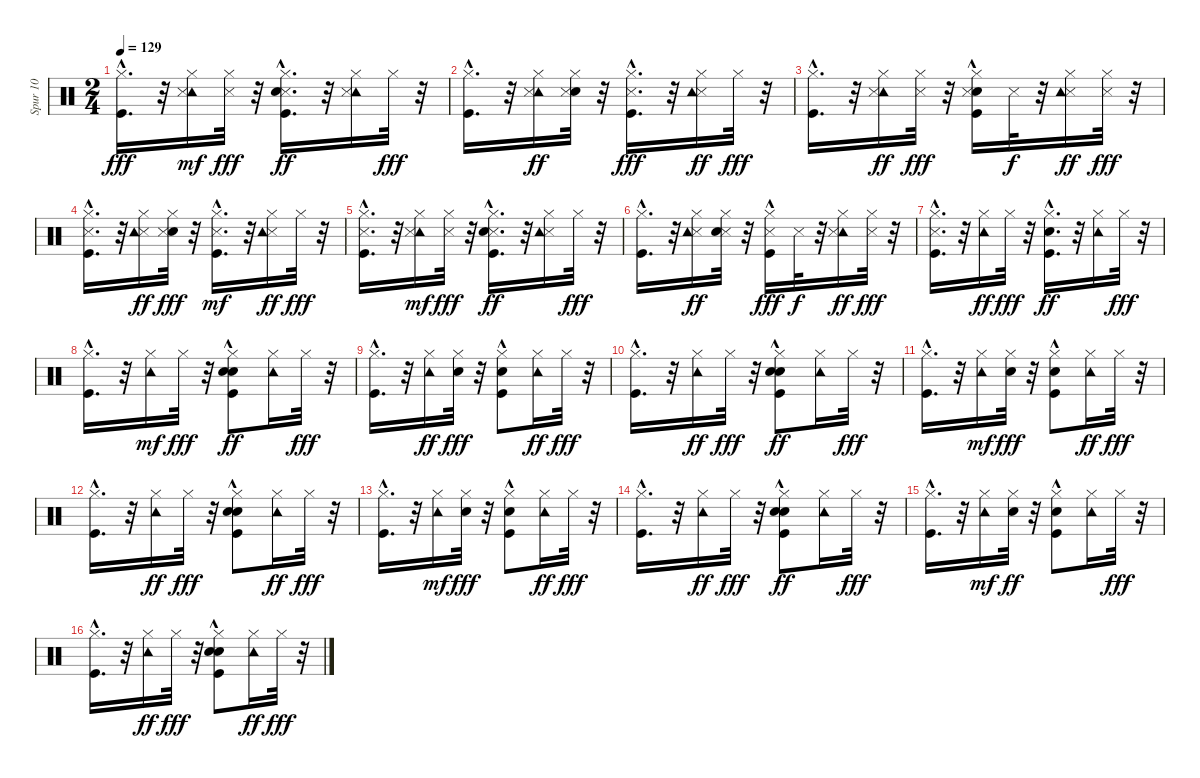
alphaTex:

\track ("Spur 10" "Spur 10") {instrument percussion}
\staff {score}
\articulation defaults
\ts (2 4)
\tempo 129
\clef neutral
\ks c
("Kick (hit)"{hac} "Hi-Hat (closed)").16{d dy fff} r.32 ("Hi-Hat (closed)" "Tambourine (hit)" "Snare (side stick) 3").16{dy mf} ("Hi-Hat (closed)" "Snare (side stick) 3").32{dy fff} r.32 ("Hi-Hat (closed)" "Snare (side stick) 3" "Kick (hit)"{hac} "Snare (hit) 2").16{d dy ff} r.32 ("Hi-Hat (closed)" "Tambourine (hit)" "Snare (side stick) 3").16 "Hi-Hat (closed)".32{dy fff} r.32 |
("Kick (hit)"{hac} "Hi-Hat (closed)").16{d} r.32 ("Tambourine (hit)" "Snare (side stick) 3" "Hi-Hat (closed)").16{dy ff} ("Hi-Hat (closed)" "Snare (hit) 2" "Snare (side stick) 3").32 r.32 ("Kick (hit)"{hac} "Hi-Hat (closed)" "Snare (side stick) 3").16{d dy fff} r.32 ("Snare (side stick) 3" "Hi-Hat (closed)" "Tambourine (hit)").16{dy ff} "Hi-Hat (closed)".32{dy fff} r.32 |
("Hi-Hat (closed)" "Kick (hit)"{hac}).16{d} r.32 ("Hi-Hat (closed)" "Tambourine (hit)" "Snare (side stick) 3").16{dy ff} ("Snare (side stick) 3" "Hi-Hat (closed)").32{dy fff} r.32 ("Snare (hit) 2" "Snare (side stick) 3" "Hi-Hat (closed)" "Kick (hit)"{hac}).16 "Snare (side stick) 3".32{dy f} r.32 ("Hi-Hat (closed)" "Snare (side stick) 3" "Tambourine (hit)").16{dy ff} ("Snare (side stick) 3" "Hi-Hat (closed)").32{dy fff} r.32 |
("Hi-Hat (closed)" "Kick (hit)"{hac} "Snare (side stick) 3").16{d} r.32 ("Snare (side stick) 3" "Tambourine (hit)" "Hi-Hat (closed)").16{dy ff} ("Snare (hit) 2" "Snare (side stick) 3" "Hi-Hat (closed)").32{dy fff} r.32 ("Kick (hit)"{hac} "Hi-Hat (closed)" "Snare (side stick) 3").16{d dy mf} r.32 ("Snare (side stick) 3" "Tambourine (hit)" "Hi-Hat (closed)").16{dy ff} "Hi-Hat (closed)".32{dy fff} r.32 |
("Snare (side stick) 3" "Hi-Hat (closed)" "Kick (hit)"{hac}).16{d} r.32 ("Hi-Hat (closed)" "Tambourine (hit)" "Snare (side stick) 3").16{dy mf} ("Snare (side stick) 3" "Hi-Hat (closed)").32{dy fff} r.32 ("Hi-Hat (closed)" "Snare (side stick) 3" "Kick (hit)"{hac} "Snare (hit) 2").16{d dy ff} r.32 ("Snare (side stick) 3" "Hi-Hat (closed)" "Tambourine (hit)").16 "Hi-Hat (closed)".32{dy fff} r.32 |
("Hi-Hat (closed)" "Kick (hit)"{hac}).16{d} r.32 ("Snare (side stick) 3" "Tambourine (hit)" "Hi-Hat (closed)").16{dy ff} ("Snare (side stick) 3" "Hi-Hat (closed)" "Snare (hit) 2").32 r.32 ("Snare (side stick) 3" "Kick (hit)"{hac} "Hi-Hat (closed)").16{dy fff} "Snare (side stick) 3".32{dy f} r.32 ("Tambourine (hit)" "Hi-Hat (closed)" "Snare (side stick) 3").16{dy ff} ("Snare (side stick) 3" "Hi-Hat (closed)").32{dy fff} r.32 |
("Hi-Hat (closed)" "Kick (hit)"{hac} "Snare (side stick) 3").16{d} r.32 ("Tambourine (hit)" "Hi-Hat (closed)").16{dy ff} "Hi-Hat (closed)".32{dy fff} r.32 ("Hi-Hat (closed)" "Kick (hit)"{hac} "Snare (hit) 2").16{d dy ff} r.32 ("Tambourine (hit)" "Hi-Hat (closed)").16 "Hi-Hat (closed)".32{dy fff} r.32 |
("Kick (hit)"{hac} "Hi-Hat (closed)").16{d} r.32 ("Hi-Hat (closed)" "Tambourine (hit)").16{dy mf} "Hi-Hat (closed)".32{dy fff} r.32 ("Hand Clap (hit)" "Hi-Hat (closed)" "Kick (hit)"{hac} "Snare (hit) 2").8{dy ff} ("Tambourine (hit)" "Hi-Hat (closed)").16 "Hi-Hat (closed)".32{dy fff} r.32 |
("Hi-Hat (closed)" "Kick (hit)"{hac}).16{d} r.32 ("Tambourine (hit)" "Hi-Hat (closed)").16{dy ff} ("Snare (hit) 2" "Hi-Hat (closed)").32{dy fff} r.32 ("Hand Clap (hit)" "Hi-Hat (closed)" "Kick (hit)"{hac}).8 ("Hi-Hat (closed)" "Tambourine (hit)").16{dy ff} "Hi-Hat (closed)".32{dy fff} r.32 |
("Kick (hit)"{hac} "Hi-Hat (closed)").16{d} r.32 ("Tambourine (hit)" "Hi-Hat (closed)").16{dy ff} "Hi-Hat (closed)".32{dy fff} r.32 ("Hand Clap (hit)"{hac} "Kick (hit)"{hac} "Snare (hit) 2" "Hi-Hat (closed)").8{dy ff} ("Hi-Hat (closed)" "Tambourine (hit)").16 "Hi-Hat (closed)".32{dy fff} r.32 |
("Kick (hit)"{hac} "Hi-Hat (closed)").16{d} r.32 ("Hi-Hat (closed)" "Tambourine (hit)").16{dy mf} ("Snare (hit) 2" "Hi-Hat (closed)").32{dy fff} r.32 ("Hand Clap (hit)" "Hi-Hat (closed)" "Kick (hit)"{hac}).8 ("Tambourine (hit)" "Hi-Hat (closed)").16{dy ff} "Hi-Hat (closed)".32{dy fff} r.32 |
("Hi-Hat (closed)" "Kick (hit)"{hac}).16{d} r.32 ("Tambourine (hit)" "Hi-Hat (closed)").16{dy ff} "Hi-Hat (closed)".32{dy fff} r.32 ("Hand Clap (hit)"{hac} "Snare (hit) 2" "Kick (hit)"{hac} "Hi-Hat (closed)").8 ("Tambourine (hit)" "Hi-Hat (closed)").16{dy ff} "Hi-Hat (closed)".32{dy fff} r.32 |
("Hi-Hat (closed)" "Kick (hit)"{hac}).16{d} r.32 ("Hi-Hat (closed)" "Tambourine (hit)").16{dy mf} ("Snare (hit) 2" "Hi-Hat (closed)").32{dy fff} r.32 ("Hand Clap (hit)" "Kick (hit)"{hac} "Hi-Hat (closed)").8 ("Tambourine (hit)" "Hi-Hat (closed)").16{dy ff} "Hi-Hat (closed)".32{dy fff} r.32 |
("Hi-Hat (closed)" "Kick (hit)"{hac}).16{d} r.32 ("Tambourine (hit)" "Hi-Hat (closed)").16{dy ff} "Hi-Hat (closed)".32{dy fff} r.32 ("Hand Clap (hit)"{hac} "Kick (hit)"{hac} "Snare (hit) 2" "Hi-Hat (closed)").8{dy ff} ("Hi-Hat (closed)" "Tambourine (hit)").16 "Hi-Hat (closed)".32{dy fff} r.32 |
("Hi-Hat (closed)" "Kick (hit)"{hac}).16{d} r.32 ("Hi-Hat (closed)" "Tambourine (hit)").16{dy mf} ("Hi-Hat (closed)" "Snare (hit) 2").32{dy ff} r.32 ("Kick (hit)"{hac} "Hi-Hat (closed)" "Hand Clap (hit)").8 ("Tambourine (hit)" "Hi-Hat (closed)").16 "Hi-Hat (closed)".32{dy fff} r.32 |
("Hi-Hat (closed)" "Kick (hit)"{hac}).16{d} r.32 ("Tambourine (hit)" "Hi-Hat (closed)").16{dy ff} "Hi-Hat (closed)".32{dy fff} r.32 ("Hi-Hat (closed)" "Snare (hit) 2" "Hand Clap (hit)" "Kick (hit)"{hac}).8 ("Hi-Hat (closed)" "Tambourine (hit)").16{dy ff} "Hi-Hat (closed)".32{dy fff} r.32
